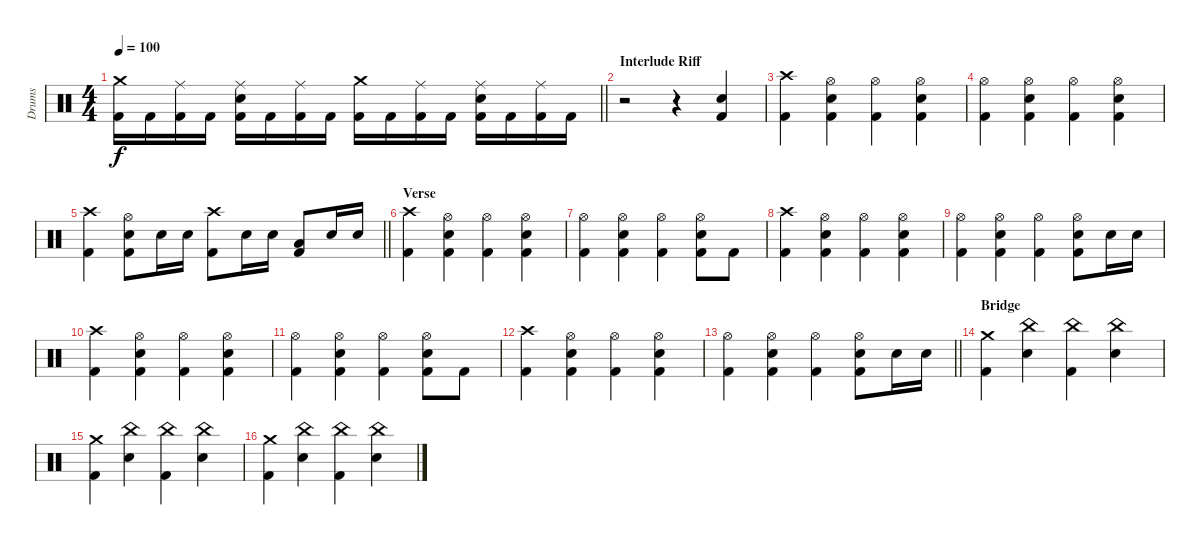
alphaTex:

\track ("Drums" "Drums") {instrument percussion}
\staff {score}
\articulation defaults
\ts (4 4)
\tempo 100
\clef neutral
\barLineRight lightlight
\ks c
("Crash medium (hit)" "Kick (hit) 2").16{dy f} "Kick (hit) 2".16 ("Ride (middle)" "Kick (hit) 2").16 "Kick (hit) 2".16 ("Ride (middle)" "Snare (hit) 2" "Kick (hit) 2").16 "Kick (hit) 2".16 ("Ride (middle)" "Kick (hit) 2").16 "Kick (hit) 2".16 ("Crash medium (hit)" "Kick (hit) 2").16 "Kick (hit) 2".16 ("Ride (middle)" "Kick (hit) 2").16 "Kick (hit) 2".16 ("Ride (middle)" "Snare (hit) 2" "Kick (hit) 2").16 "Kick (hit) 2".16 ("Ride (middle)" "Kick (hit) 2").16 "Kick (hit) 2".16 |
\section ("" "Interlude Riff")
r.2 r.4 ("Snare (hit) 2" "Kick (hit) 2").4 |
("Crash high (hit)" "Kick (hit) 2").4 ("Hi-Hat (open)" "Snare (hit) 2" "Kick (hit) 2").4 ("Hi-Hat (open)" "Kick (hit) 2").4 ("Hi-Hat (open)" "Snare (hit) 2" "Kick (hit) 2").4 |
("Hi-Hat (open)" "Kick (hit) 2").4 ("Hi-Hat (open)" "Snare (hit) 2" "Kick (hit) 2").4 ("Hi-Hat (open)" "Kick (hit) 2").4 ("Hi-Hat (open)" "Snare (hit) 2" "Kick (hit) 2").4 |
\barLineRight lightlight
("Crash high (hit)" "Kick (hit) 2").4 ("Hi-Hat (open)" "Snare (hit) 2" "Kick (hit) 2").8 "Snare (hit) 2".16 "Snare (hit) 2".16 ("Crash high (hit)" "Kick (hit) 2").8 "Snare (hit) 2".16 "Snare (hit) 2".16 ("Low Floor Tom (hit)" "Kick (hit) 2").8 "Snare (hit) 2".16 "Snare (hit) 2".16 |
\section ("" "Verse")
("Crash high (hit)" "Kick (hit) 2").4 ("Hi-Hat (open)" "Snare (hit) 2" "Kick (hit) 2").4 ("Hi-Hat (open)" "Kick (hit) 2").4 ("Hi-Hat (open)" "Snare (hit) 2" "Kick (hit) 2").4 |
("Hi-Hat (open)" "Kick (hit) 2").4 ("Hi-Hat (open)" "Snare (hit) 2" "Kick (hit) 2").4 ("Hi-Hat (open)" "Kick (hit) 2").4 ("Hi-Hat (open)" "Snare (hit) 2" "Kick (hit) 2").8 "Kick (hit) 2".8 |
("Crash high (hit)" "Kick (hit) 2").4 ("Hi-Hat (open)" "Snare (hit) 2" "Kick (hit) 2").4 ("Hi-Hat (open)" "Kick (hit) 2").4 ("Hi-Hat (open)" "Snare (hit) 2" "Kick (hit) 2").4 |
("Hi-Hat (open)" "Kick (hit) 2").4 ("Hi-Hat (open)" "Snare (hit) 2" "Kick (hit) 2").4 ("Hi-Hat (open)" "Kick (hit) 2").4 ("Hi-Hat (open)" "Snare (hit) 2" "Kick (hit) 2").8 "Snare (hit) 2".16 "Snare (hit) 2".16 |
("Crash high (hit)" "Kick (hit) 2").4 ("Hi-Hat (open)" "Snare (hit) 2" "Kick (hit) 2").4 ("Hi-Hat (open)" "Kick (hit) 2").4 ("Hi-Hat (open)" "Snare (hit) 2" "Kick (hit) 2").4 |
("Hi-Hat (open)" "Kick (hit) 2").4 ("Hi-Hat (open)" "Snare (hit) 2" "Kick (hit) 2").4 ("Hi-Hat (open)" "Kick (hit) 2").4 ("Hi-Hat (open)" "Snare (hit) 2" "Kick (hit) 2").8 "Kick (hit) 2".8 |
("Crash high (hit)" "Kick (hit) 2").4 ("Hi-Hat (open)" "Snare (hit) 2" "Kick (hit) 2").4 ("Hi-Hat (open)" "Kick (hit) 2").4 ("Hi-Hat (open)" "Snare (hit) 2" "Kick (hit) 2").4 |
\barLineRight lightlight
("Hi-Hat (open)" "Kick (hit) 2").4 ("Hi-Hat (open)" "Snare (hit) 2" "Kick (hit) 2").4 ("Hi-Hat (open)" "Kick (hit) 2").4 ("Hi-Hat (open)" "Snare (hit) 2" "Kick (hit) 2").8 "Snare (hit) 2".16 "Snare (hit) 2".16 |
\section ("" "Bridge")
("Crash medium (hit)" "Kick (hit) 2").4 ("China (hit)" "Snare (hit) 2").4 ("China (hit)" "Kick (hit) 2").4 ("China (hit)" "Snare (hit) 2").4 |
("Crash medium (hit)" "Kick (hit) 2").4 ("China (hit)" "Snare (hit) 2").4 ("China (hit)" "Kick (hit) 2").4 ("China (hit)" "Snare (hit) 2").4 |
("Crash medium (hit)" "Kick (hit) 2").4 ("China (hit)" "Snare (hit) 2").4 ("China (hit)" "Kick (hit) 2").4 ("China (hit)" "Snare (hit) 2").4
